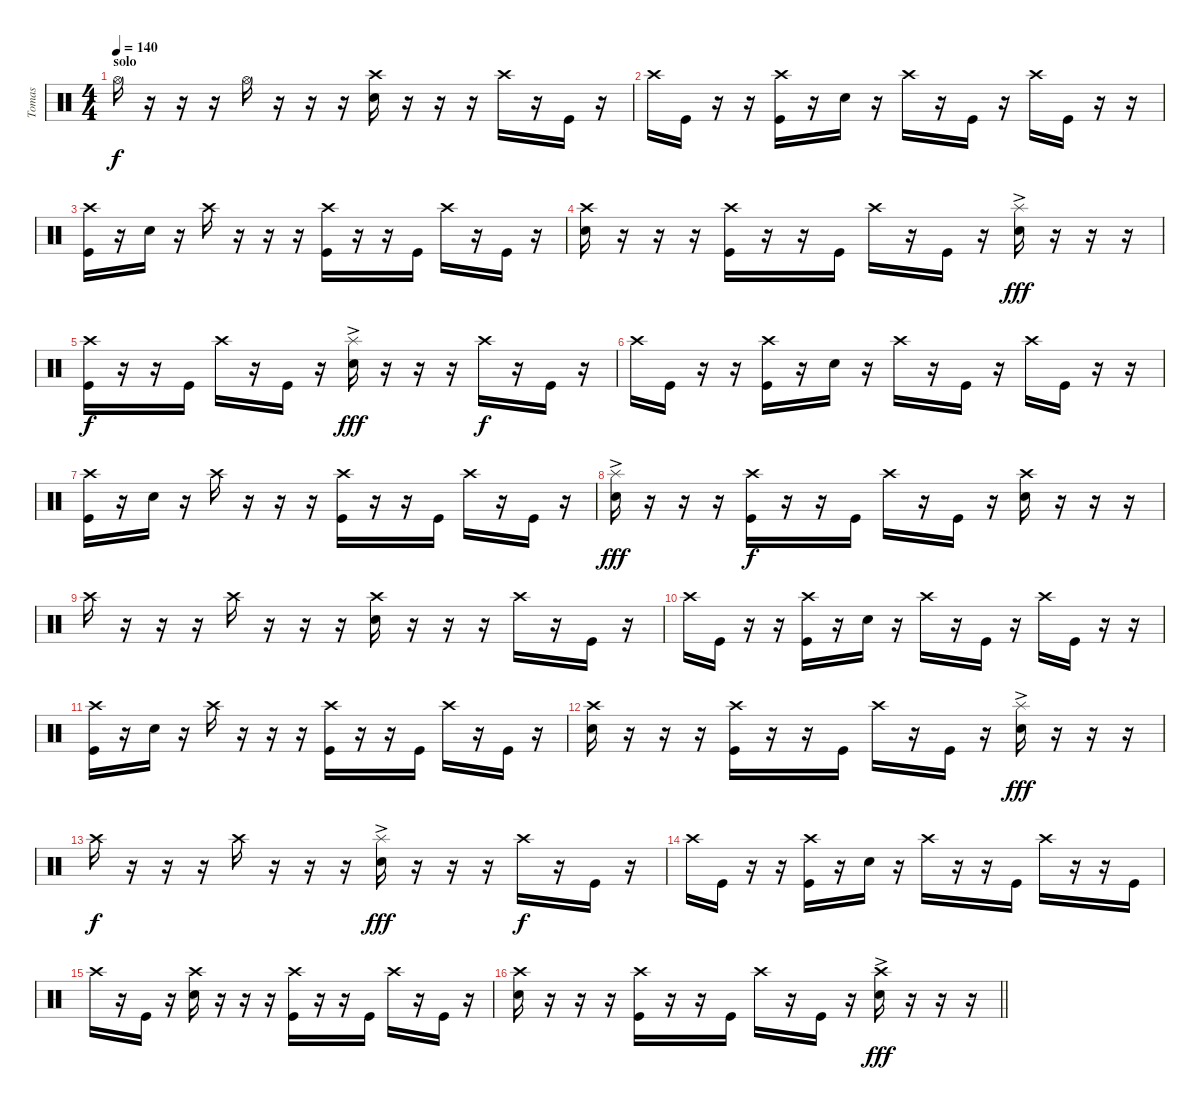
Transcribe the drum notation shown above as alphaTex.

\track ("Tomas" "Tomas") {instrument percussion}
\staff {score}
\articulation defaults
\ts (4 4)
\section ("" "solo")
\tempo 140
\clef neutral
\ks c "Hi-Hat (open)".16{dy f}
r.16 r.16 r.16 "Hi-Hat (open)".16 r.16 r.16 r.16 ("Crash high (hit)" "Electric Snare (hit)").16 r.16 r.16 r.16 "Crash high (hit)".16 r.16 "Kick (hit)".16 r.16 |
"Crash high (hit)".16 "Kick (hit)".16 r.16 r.16 ("Crash high (hit)" "Kick (hit)").16 r.16 "Electric Snare (hit)".16 r.16 "Crash high (hit)".16 r.16 "Kick (hit)".16 r.16 "Crash high (hit)".16 "Kick (hit)".16 r.16 r.16 |
("Crash high (hit)" "Kick (hit)").16 r.16 "Electric Snare (hit)".16 r.16 "Crash high (hit)".16 r.16 r.16 r.16 ("Crash high (hit)" "Kick (hit)").16 r.16 r.16 "Kick (hit)".16 "Crash high (hit)".16 r.16 "Kick (hit)".16 r.16 |
("Crash high (hit)" "Electric Snare (hit)").16 r.16 r.16 r.16 ("Crash high (hit)" "Kick (hit)").16 r.16 r.16 "Kick (hit)".16 "Crash high (hit)".16 r.16 "Kick (hit)".16 r.16 ("Splash (hit)"{ac} "Electric Snare (hit)").16{dy fff} r.16 r.16 r.16 |
("Crash high (hit)" "Kick (hit)").16{dy f} r.16 r.16 "Kick (hit)".16 "Crash high (hit)".16 r.16 "Kick (hit)".16 r.16 ("Splash (hit)"{ac} "Electric Snare (hit)").16{dy fff} r.16 r.16 r.16 "Crash high (hit)".16{dy f} r.16 "Kick (hit)".16 r.16 |
"Crash high (hit)".16 "Kick (hit)".16 r.16 r.16 ("Crash high (hit)" "Kick (hit)").16 r.16 "Electric Snare (hit)".16 r.16 "Crash high (hit)".16 r.16 "Kick (hit)".16 r.16 "Crash high (hit)".16 "Kick (hit)".16 r.16 r.16 |
("Crash high (hit)" "Kick (hit)").16 r.16 "Electric Snare (hit)".16 r.16 "Crash high (hit)".16 r.16 r.16 r.16 ("Crash high (hit)" "Kick (hit)").16 r.16 r.16 "Kick (hit)".16 "Crash high (hit)".16 r.16 "Kick (hit)".16 r.16 |
("Splash (hit)"{ac} "Electric Snare (hit)").16{dy fff} r.16 r.16 r.16 ("Crash high (hit)" "Kick (hit)").16{dy f} r.16 r.16 "Kick (hit)".16 "Crash high (hit)".16 r.16 "Kick (hit)".16 r.16 ("Crash high (hit)" "Electric Snare (hit)").16 r.16 r.16 r.16 |
"Crash high (hit)".16 r.16 r.16 r.16 "Crash high (hit)".16 r.16 r.16 r.16 ("Crash high (hit)" "Electric Snare (hit)").16 r.16 r.16 r.16 "Crash high (hit)".16 r.16 "Kick (hit)".16 r.16 |
"Crash high (hit)".16 "Kick (hit)".16 r.16 r.16 ("Crash high (hit)" "Kick (hit)").16 r.16 "Electric Snare (hit)".16 r.16 "Crash high (hit)".16 r.16 "Kick (hit)".16 r.16 "Crash high (hit)".16 "Kick (hit)".16 r.16 r.16 |
("Crash high (hit)" "Kick (hit)").16 r.16 "Electric Snare (hit)".16 r.16 "Crash high (hit)".16 r.16 r.16 r.16 ("Crash high (hit)" "Kick (hit)").16 r.16 r.16 "Kick (hit)".16 "Crash high (hit)".16 r.16 "Kick (hit)".16 r.16 |
("Crash high (hit)" "Electric Snare (hit)").16 r.16 r.16 r.16 ("Crash high (hit)" "Kick (hit)").16 r.16 r.16 "Kick (hit)".16 "Crash high (hit)".16 r.16 "Kick (hit)".16 r.16 ("Splash (hit)"{ac} "Electric Snare (hit)").16{dy fff} r.16 r.16 r.16 |
"Crash high (hit)".16{dy f} r.16 r.16 r.16 "Crash high (hit)".16 r.16 r.16 r.16 ("Splash (hit)"{ac} "Electric Snare (hit)").16{dy fff} r.16 r.16 r.16 "Crash high (hit)".16{dy f} r.16 "Kick (hit)".16 r.16 |
"Crash high (hit)".16 "Kick (hit)".16 r.16 r.16 ("Crash high (hit)" "Kick (hit)").16 r.16 "Electric Snare (hit)".16 r.16 "Crash high (hit)".16 r.16 r.16 "Kick (hit)".16 "Crash high (hit)".16 r.16 r.16 "Kick (hit)".16 |
"Crash high (hit)".16 r.16 "Kick (hit)".16 r.16 ("Crash high (hit)" "Electric Snare (hit)").16 r.16 r.16 r.16 ("Crash high (hit)" "Kick (hit)").16 r.16 r.16 "Kick (hit)".16 "Crash high (hit)".16 r.16 "Kick (hit)".16 r.16 |
\barLineRight lightlight
("Crash high (hit)" "Electric Snare (hit)").16{volume 16} r.16 r.16 r.16 ("Crash high (hit)" "Kick (hit)").16 r.16 r.16 "Kick (hit)".16 "Crash high (hit)".16 r.16 "Kick (hit)".16 r.16 ("Crash high (hit)"{ac} "Electric Snare (hit)").16{dy fff} r.16 r.16 r.16
